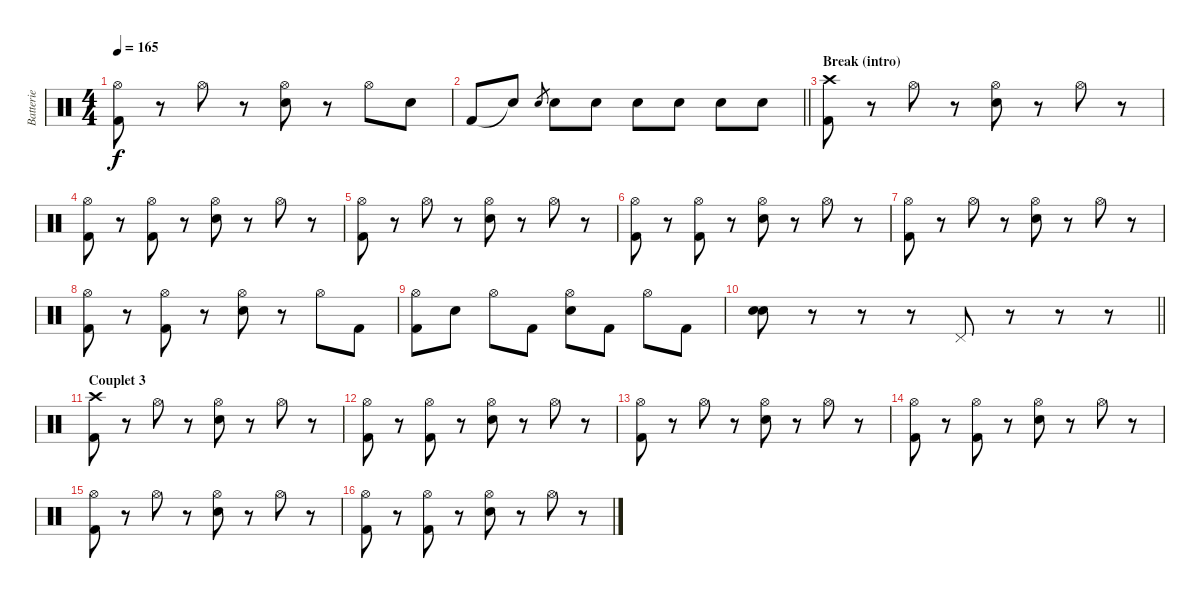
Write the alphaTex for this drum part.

\track ("Batterie" "Batterie") {instrument percussion}
\staff {score}
\articulation defaults
\ts (4 4)
\tempo 165
\clef neutral
\ks c
("Hi-Hat (open)" "Kick (hit) 2").8{dy f} r.8 "Hi-Hat (open)".8 r.8 ("Hi-Hat (open)" "Electric Snare (hit)").8 r.8 "Hi-Hat (open)".8 "Electric Snare (hit)".8 |
\barLineRight lightlight "Kick (hit) 2".8 "Snare (hit)"{t}.8 "Electric Snare (hit)".8{gr} "Electric Snare (hit)".8 "Electric Snare (hit)".8 "Electric Snare (hit)".8 "Electric Snare (hit)".8 "Electric Snare (hit)".8 "Electric Snare (hit)".8
|
\section ("" "Break (intro)")
("Crash high (hit)" "Kick (hit) 2").8 r.8 "Hi-Hat (open)".8 r.8 ("Hi-Hat (open)" "Electric Snare (hit)").8 r.8 "Hi-Hat (open)".8 r.8 |
("Hi-Hat (open)" "Kick (hit) 2").8 r.8 ("Hi-Hat (open)" "Kick (hit) 2").8 r.8 ("Hi-Hat (open)" "Electric Snare (hit)").8 r.8 "Hi-Hat (open)".8 r.8 |
("Hi-Hat (open)" "Kick (hit) 2").8 r.8 "Hi-Hat (open)".8 r.8 ("Hi-Hat (open)" "Electric Snare (hit)").8 r.8 "Hi-Hat (open)".8 r.8 |
("Hi-Hat (open)" "Kick (hit) 2").8 r.8 ("Hi-Hat (open)" "Kick (hit) 2").8 r.8 ("Hi-Hat (open)" "Electric Snare (hit)").8 r.8 "Hi-Hat (open)".8 r.8 |
("Hi-Hat (open)" "Kick (hit) 2").8 r.8 "Hi-Hat (open)".8 r.8 ("Hi-Hat (open)" "Electric Snare (hit)").8 r.8 "Hi-Hat (open)".8 r.8 |
("Hi-Hat (open)" "Kick (hit) 2").8 r.8 ("Hi-Hat (open)" "Kick (hit) 2").8 r.8 ("Hi-Hat (open)" "Electric Snare (hit)").8 r.8 "Hi-Hat (open)".8 "Kick (hit) 2".8 |
("Hi-Hat (open)" "Kick (hit) 2").8 "Electric Snare (hit)".8 "Hi-Hat (open)".8 "Kick (hit) 2".8 ("Hi-Hat (open)" "Electric Snare (hit)").8 "Kick (hit) 2".8 "Hi-Hat (open)".8 "Kick (hit) 2".8 |
\barLineRight lightlight
("Electric Snare (hit)" "Electric Snare (hit)").8{bu 120} r.8 r.8 r.8 "Pedal Hi-Hat (hit)".8 r.8 r.8 r.8 |
\section ("" "Couplet 3")
("Crash high (hit)" "Kick (hit) 2").8 r.8 "Hi-Hat (open)".8 r.8 ("Hi-Hat (open)" "Electric Snare (hit)").8 r.8 "Hi-Hat (open)".8 r.8 |
("Hi-Hat (open)" "Kick (hit) 2").8 r.8 ("Hi-Hat (open)" "Kick (hit) 2").8 r.8 ("Hi-Hat (open)" "Electric Snare (hit)").8 r.8 "Hi-Hat (open)".8 r.8 |
("Hi-Hat (open)" "Kick (hit) 2").8 r.8 "Hi-Hat (open)".8 r.8 ("Hi-Hat (open)" "Electric Snare (hit)").8 r.8 "Hi-Hat (open)".8 r.8 |
("Hi-Hat (open)" "Kick (hit) 2").8 r.8 ("Hi-Hat (open)" "Kick (hit) 2").8 r.8 ("Hi-Hat (open)" "Electric Snare (hit)").8 r.8 "Hi-Hat (open)".8 r.8 |
("Hi-Hat (open)" "Kick (hit) 2").8 r.8 "Hi-Hat (open)".8 r.8 ("Hi-Hat (open)" "Electric Snare (hit)").8 r.8 "Hi-Hat (open)".8 r.8 |
("Hi-Hat (open)" "Kick (hit) 2").8 r.8 ("Hi-Hat (open)" "Kick (hit) 2").8 r.8 ("Hi-Hat (open)" "Electric Snare (hit)").8 r.8 "Hi-Hat (open)".8 r.8
